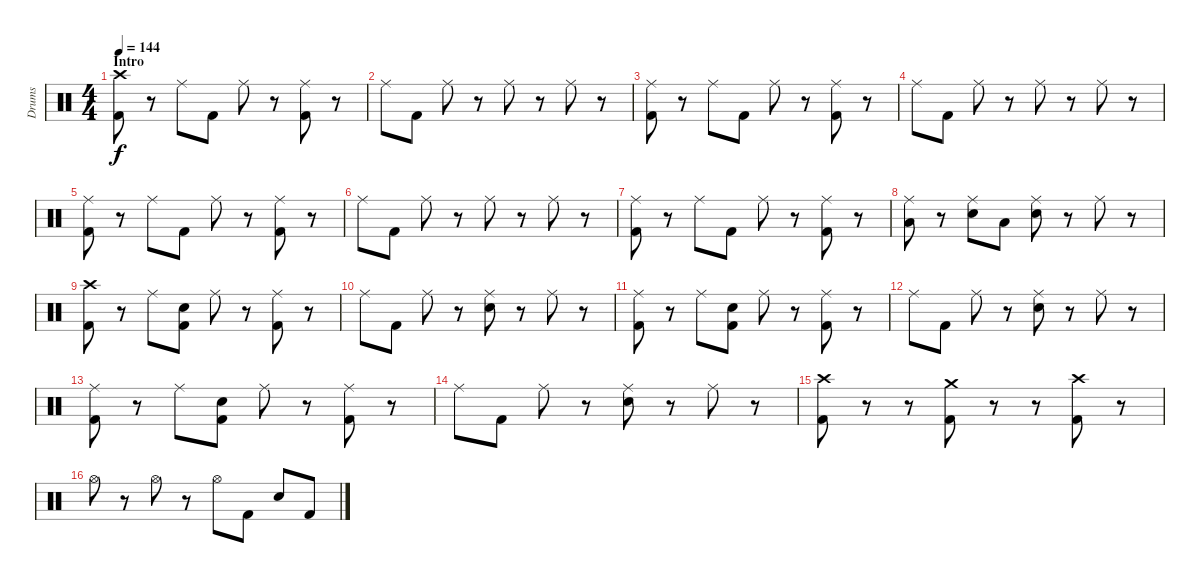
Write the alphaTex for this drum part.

\track ("Drums" "Drums") {instrument percussion}
\staff {score}
\articulation defaults
\ts (4 4)
\section ("" "Intro")
\tempo 144
\clef neutral
\ks c
("Crash high (hit)" "Kick (hit) 2").8{dy f} r.8 "Ride (middle)".8 "Kick (hit) 2".8 "Ride (middle)".8 r.8 ("Ride (middle)" "Kick (hit) 2").8 r.8 |
"Ride (middle)".8 "Kick (hit) 2".8 "Ride (middle)".8 r.8 "Ride (middle)".8 r.8 "Ride (middle)".8 r.8 |
("Ride (middle)" "Kick (hit) 2").8 r.8 "Ride (middle)".8 "Kick (hit) 2".8 "Ride (middle)".8 r.8 ("Ride (middle)" "Kick (hit) 2").8 r.8 |
"Ride (middle)".8 "Kick (hit) 2".8 "Ride (middle)".8 r.8 "Ride (middle)".8 r.8 "Ride (middle)".8 r.8 |
("Ride (middle)" "Kick (hit) 2").8 r.8 "Ride (middle)".8 "Kick (hit) 2".8 "Ride (middle)".8 r.8 ("Ride (middle)" "Kick (hit) 2").8 r.8 |
"Ride (middle)".8 "Kick (hit) 2".8 "Ride (middle)".8 r.8 "Ride (middle)".8 r.8 "Ride (middle)".8 r.8 |
("Ride (middle)" "Kick (hit) 2").8 r.8 "Ride (middle)".8 "Kick (hit) 2".8 "Ride (middle)".8 r.8 ("Ride (middle)" "Kick (hit) 2").8 r.8 |
("Ride (middle)" "Low Tom (hit)").8 r.8 ("Ride (middle)" "Electric Snare (hit)").8 "Low Tom (hit)".8 ("Ride (middle)" "Electric Snare (hit)").8 r.8 "Ride (middle)".8 r.8 |
("Crash high (hit)" "Kick (hit) 2").8 r.8 "Ride (middle)".8 ("Electric Snare (hit)" "Kick (hit) 2").8 "Ride (middle)".8 r.8 ("Ride (middle)" "Kick (hit) 2").8 r.8 |
"Ride (middle)".8 "Kick (hit) 2".8 "Ride (middle)".8 r.8 ("Ride (middle)" "Electric Snare (hit)").8 r.8 "Ride (middle)".8 r.8 |
("Ride (middle)" "Kick (hit) 2").8 r.8 "Ride (middle)".8 ("Electric Snare (hit)" "Kick (hit) 2").8 "Ride (middle)".8 r.8 ("Ride (middle)" "Kick (hit) 2").8 r.8 |
"Ride (middle)".8 "Kick (hit) 2".8 "Ride (middle)".8 r.8 ("Ride (middle)" "Electric Snare (hit)").8 r.8 "Ride (middle)".8 r.8 |
("Ride (middle)" "Kick (hit) 2").8 r.8 "Ride (middle)".8 ("Electric Snare (hit)" "Kick (hit) 2").8 "Ride (middle)".8 r.8 ("Ride (middle)" "Kick (hit) 2").8 r.8 |
"Ride (middle)".8 "Kick (hit) 2".8 "Ride (middle)".8 r.8 ("Ride (middle)" "Electric Snare (hit)").8 r.8 "Ride (middle)".8 r.8 |
("Crash high (hit)" "Kick (hit) 2").8 r.8 r.8 ("Crash medium (hit)" "Kick (hit) 2").8 r.8 r.8 ("Crash high (hit)" "Kick (hit) 2").8 r.8 |
"Hi-Hat (open)".8 r.8 "Hi-Hat (open)".8 r.8 "Hi-Hat (open)".8 "Kick (hit) 2".8 "Electric Snare (hit)".8 "Kick (hit) 2".8
